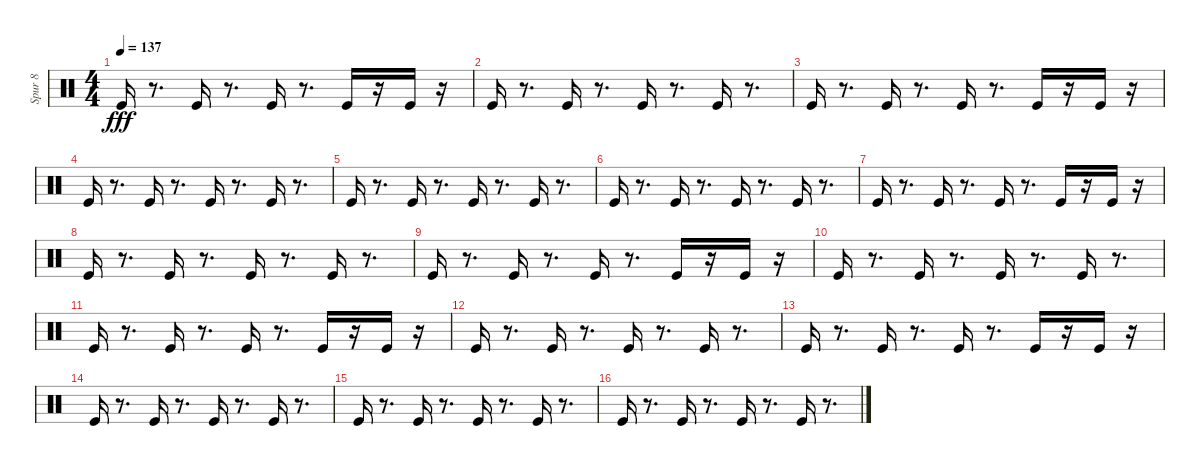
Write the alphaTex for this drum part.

\track ("Spur 8" "Spur 8") {instrument percussion}
\staff {score}
\articulation defaults
\ts (4 4)
\tempo 137
\clef neutral
\ks c "Kick (hit)".16{dy fff}
r.8{d} "Kick (hit)".16 r.8{d} "Kick (hit)".16 r.8{d} "Kick (hit)".16 r.16 "Kick (hit)".16 r.16 |
"Kick (hit)".16 r.8{d} "Kick (hit)".16 r.8{d} "Kick (hit)".16 r.8{d} "Kick (hit)".16 r.8{d} |
"Kick (hit)".16 r.8{d} "Kick (hit)".16 r.8{d} "Kick (hit)".16 r.8{d} "Kick (hit)".16 r.16 "Kick (hit)".16 r.16 |
"Kick (hit)".16 r.8{d} "Kick (hit)".16 r.8{d} "Kick (hit)".16 r.8{d} "Kick (hit)".16 r.8{d} |
"Kick (hit)".16 r.8{d} "Kick (hit)".16 r.8{d} "Kick (hit)".16 r.8{d} "Kick (hit)".16 r.8{d} |
"Kick (hit)".16 r.8{d} "Kick (hit)".16 r.8{d} "Kick (hit)".16 r.8{d} "Kick (hit)".16 r.8{d} |
"Kick (hit)".16 r.8{d} "Kick (hit)".16 r.8{d} "Kick (hit)".16 r.8{d} "Kick (hit)".16 r.16 "Kick (hit)".16 r.16 |
"Kick (hit)".16 r.8{d} "Kick (hit)".16 r.8{d} "Kick (hit)".16 r.8{d} "Kick (hit)".16 r.8{d} |
"Kick (hit)".16 r.8{d} "Kick (hit)".16 r.8{d} "Kick (hit)".16 r.8{d} "Kick (hit)".16 r.16 "Kick (hit)".16 r.16 |
"Kick (hit)".16 r.8{d} "Kick (hit)".16 r.8{d} "Kick (hit)".16 r.8{d} "Kick (hit)".16 r.8{d} |
"Kick (hit)".16 r.8{d} "Kick (hit)".16 r.8{d} "Kick (hit)".16 r.8{d} "Kick (hit)".16 r.16 "Kick (hit)".16 r.16 |
"Kick (hit)".16 r.8{d} "Kick (hit)".16 r.8{d} "Kick (hit)".16 r.8{d} "Kick (hit)".16 r.8{d} |
"Kick (hit)".16 r.8{d} "Kick (hit)".16 r.8{d} "Kick (hit)".16 r.8{d} "Kick (hit)".16 r.16 "Kick (hit)".16 r.16 |
"Kick (hit)".16 r.8{d} "Kick (hit)".16 r.8{d} "Kick (hit)".16 r.8{d} "Kick (hit)".16 r.8{d} |
"Kick (hit)".16 r.8{d} "Kick (hit)".16 r.8{d} "Kick (hit)".16 r.8{d} "Kick (hit)".16 r.8{d} |
"Kick (hit)".16 r.8{d} "Kick (hit)".16 r.8{d} "Kick (hit)".16 r.8{d} "Kick (hit)".16 r.8{d}
